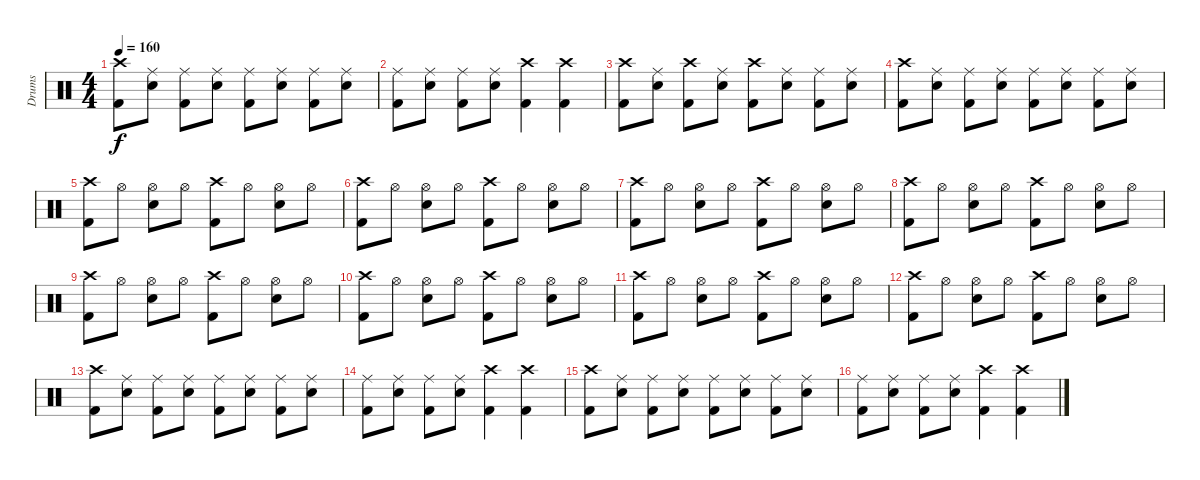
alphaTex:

\track ("Drums" "Drums") {instrument percussion}
\staff {score}
\articulation defaults
\ts (4 4)
\tempo 160
\clef neutral
\ks c
("Kick (hit) 2" "Crash high (hit)").8{dy f} ("Snare (hit) 2" "Ride (middle)").8 ("Kick (hit) 2" "Ride (middle)").8 ("Snare (hit) 2" "Ride (middle)").8 ("Kick (hit) 2" "Ride (middle)").8 ("Snare (hit) 2" "Ride (middle)").8 ("Kick (hit) 2" "Ride (middle)").8 ("Snare (hit) 2" "Ride (middle)").8 |
("Kick (hit) 2" "Ride (middle)").8 ("Snare (hit) 2" "Ride (middle)").8 ("Kick (hit) 2" "Ride (middle)").8 ("Snare (hit) 2" "Ride (middle)").8 ("Kick (hit) 2" "Crash high (hit)").4 ("Kick (hit) 2" "Crash high (hit)").4 |
("Kick (hit) 2" "Crash high (hit)").8 ("Snare (hit) 2" "Ride (middle)").8 ("Kick (hit) 2" "Crash high (hit)").8 ("Snare (hit) 2" "Ride (middle)").8 ("Kick (hit) 2" "Crash high (hit)").8 ("Snare (hit) 2" "Ride (middle)").8 ("Kick (hit) 2" "Ride (middle)").8 ("Snare (hit) 2" "Ride (middle)").8 |
("Crash high (hit)" "Kick (hit) 2").8 ("Ride (middle)" "Snare (hit) 2").8 ("Ride (middle)" "Kick (hit) 2").8 ("Ride (middle)" "Snare (hit) 2").8 ("Ride (middle)" "Kick (hit) 2").8 ("Ride (middle)" "Snare (hit) 2").8 ("Ride (middle)" "Kick (hit) 2").8 ("Ride (middle)" "Snare (hit) 2").8 |
("Crash high (hit)" "Kick (hit) 2").8 "Hi-Hat (open)".8 ("Snare (hit) 2" "Hi-Hat (open)").8 "Hi-Hat (open)".8 ("Crash high (hit)" "Kick (hit) 2").8 "Hi-Hat (open)".8 ("Snare (hit) 2" "Hi-Hat (open)").8 "Hi-Hat (open)".8 |
("Crash high (hit)" "Kick (hit) 2").8 "Hi-Hat (open)".8 ("Snare (hit) 2" "Hi-Hat (open)").8 "Hi-Hat (open)".8 ("Crash high (hit)" "Kick (hit) 2").8 "Hi-Hat (open)".8 ("Snare (hit) 2" "Hi-Hat (open)").8 "Hi-Hat (open)".8 |
("Crash high (hit)" "Kick (hit) 2").8 "Hi-Hat (open)".8 ("Snare (hit) 2" "Hi-Hat (open)").8 "Hi-Hat (open)".8 ("Crash high (hit)" "Kick (hit) 2").8 "Hi-Hat (open)".8 ("Snare (hit) 2" "Hi-Hat (open)").8 "Hi-Hat (open)".8 |
("Crash high (hit)" "Kick (hit) 2").8 "Hi-Hat (open)".8 ("Snare (hit) 2" "Hi-Hat (open)").8 "Hi-Hat (open)".8 ("Crash high (hit)" "Kick (hit) 2").8 "Hi-Hat (open)".8 ("Snare (hit) 2" "Hi-Hat (open)").8 "Hi-Hat (open)".8 |
("Crash high (hit)" "Kick (hit) 2").8 "Hi-Hat (open)".8 ("Snare (hit) 2" "Hi-Hat (open)").8 "Hi-Hat (open)".8 ("Crash high (hit)" "Kick (hit) 2").8 "Hi-Hat (open)".8 ("Snare (hit) 2" "Hi-Hat (open)").8 "Hi-Hat (open)".8 |
("Crash high (hit)" "Kick (hit) 2").8 "Hi-Hat (open)".8 ("Snare (hit) 2" "Hi-Hat (open)").8 "Hi-Hat (open)".8 ("Crash high (hit)" "Kick (hit) 2").8 "Hi-Hat (open)".8 ("Snare (hit) 2" "Hi-Hat (open)").8 "Hi-Hat (open)".8 |
("Crash high (hit)" "Kick (hit) 2").8 "Hi-Hat (open)".8 ("Snare (hit) 2" "Hi-Hat (open)").8 "Hi-Hat (open)".8 ("Crash high (hit)" "Kick (hit) 2").8 "Hi-Hat (open)".8 ("Snare (hit) 2" "Hi-Hat (open)").8 "Hi-Hat (open)".8 |
("Crash high (hit)" "Kick (hit) 2").8 "Hi-Hat (open)".8 ("Snare (hit) 2" "Hi-Hat (open)").8 "Hi-Hat (open)".8 ("Crash high (hit)" "Kick (hit) 2").8 "Hi-Hat (open)".8 ("Snare (hit) 2" "Hi-Hat (open)").8 "Hi-Hat (open)".8 |
("Kick (hit) 2" "Crash high (hit)").8 ("Snare (hit) 2" "Ride (middle)").8 ("Kick (hit) 2" "Ride (middle)").8 ("Snare (hit) 2" "Ride (middle)").8 ("Kick (hit) 2" "Ride (middle)").8 ("Snare (hit) 2" "Ride (middle)").8 ("Kick (hit) 2" "Ride (middle)").8 ("Snare (hit) 2" "Ride (middle)").8 |
("Kick (hit) 2" "Ride (middle)").8 ("Snare (hit) 2" "Ride (middle)").8 ("Kick (hit) 2" "Ride (middle)").8 ("Snare (hit) 2" "Ride (middle)").8 ("Kick (hit) 2" "Crash high (hit)").4 ("Kick (hit) 2" "Crash high (hit)").4 |
("Kick (hit) 2" "Crash high (hit)").8 ("Snare (hit) 2" "Ride (middle)").8 ("Kick (hit) 2" "Ride (middle)").8 ("Snare (hit) 2" "Ride (middle)").8 ("Kick (hit) 2" "Ride (middle)").8 ("Snare (hit) 2" "Ride (middle)").8 ("Kick (hit) 2" "Ride (middle)").8 ("Snare (hit) 2" "Ride (middle)").8 |
("Kick (hit) 2" "Ride (middle)").8 ("Snare (hit) 2" "Ride (middle)").8 ("Kick (hit) 2" "Ride (middle)").8 ("Snare (hit) 2" "Ride (middle)").8 ("Kick (hit) 2" "Crash high (hit)").4 ("Kick (hit) 2" "Crash high (hit)").4
